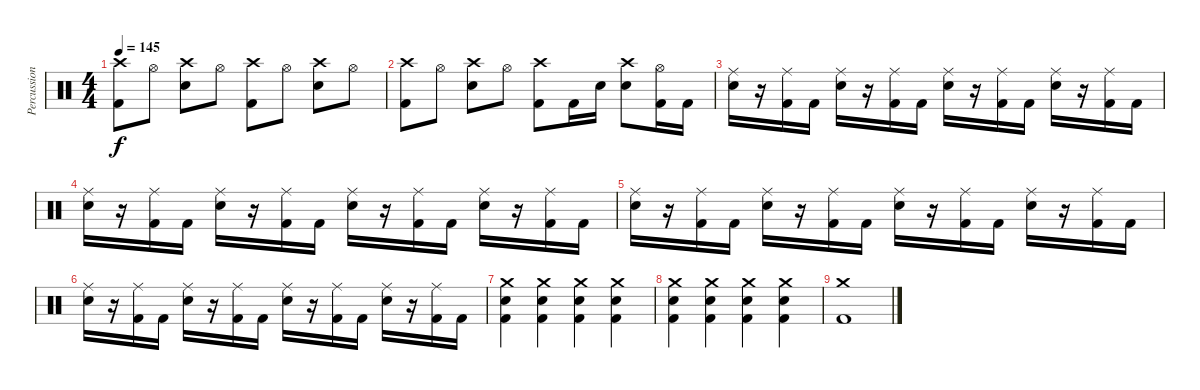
\track ("Percussion" "Percussion") {instrument percussion}
\staff {score}
\articulation defaults
\ts (4 4)
\tempo 145
\clef neutral
\ks c
("Crash high (hit)" "Kick (hit) 2").8{dy f} "Hi-Hat (open)".8 ("Crash high (hit)" "Electric Snare (hit)").8 "Hi-Hat (open)".8 ("Crash high (hit)" "Kick (hit) 2").8 "Hi-Hat (open)".8 ("Crash high (hit)" "Electric Snare (hit)").8 "Hi-Hat (open)".8 |
("Crash high (hit)" "Kick (hit) 2").8 "Hi-Hat (open)".8 ("Crash high (hit)" "Electric Snare (hit)").8 "Hi-Hat (open)".8 ("Crash high (hit)" "Kick (hit) 2").8 "Kick (hit) 2".16 "Electric Snare (hit)".16 ("Crash high (hit)" "Electric Snare (hit)").8 ("Hi-Hat (open)" "Kick (hit) 2").16 "Kick (hit) 2".16 |
("Ride (middle)" "Electric Snare (hit)").16 r.16 ("Ride (middle)" "Kick (hit) 2").16 "Kick (hit) 2".16 ("Ride (middle)" "Electric Snare (hit)").16 r.16 ("Ride (middle)" "Kick (hit) 2").16 "Kick (hit) 2".16 ("Ride (middle)" "Electric Snare (hit)").16 r.16 ("Ride (middle)" "Kick (hit) 2").16 "Kick (hit) 2".16 ("Ride (middle)" "Electric Snare (hit)").16 r.16 ("Ride (middle)" "Kick (hit) 2").16 "Kick (hit) 2".16 |
("Ride (middle)" "Electric Snare (hit)").16 r.16 ("Ride (middle)" "Kick (hit) 2").16 "Kick (hit) 2".16 ("Ride (middle)" "Electric Snare (hit)").16 r.16 ("Ride (middle)" "Kick (hit) 2").16 "Kick (hit) 2".16 ("Ride (middle)" "Electric Snare (hit)").16 r.16 ("Ride (middle)" "Kick (hit) 2").16 "Kick (hit) 2".16 ("Ride (middle)" "Electric Snare (hit)").16 r.16 ("Ride (middle)" "Kick (hit) 2").16 "Kick (hit) 2".16 |
("Ride (middle)" "Electric Snare (hit)").16 r.16 ("Ride (middle)" "Kick (hit) 2").16 "Kick (hit) 2".16 ("Ride (middle)" "Electric Snare (hit)").16 r.16 ("Ride (middle)" "Kick (hit) 2").16 "Kick (hit) 2".16 ("Ride (middle)" "Electric Snare (hit)").16 r.16 ("Ride (middle)" "Kick (hit) 2").16 "Kick (hit) 2".16 ("Ride (middle)" "Electric Snare (hit)").16 r.16 ("Ride (middle)" "Kick (hit) 2").16 "Kick (hit) 2".16 |
("Ride (middle)" "Electric Snare (hit)").16 r.16 ("Ride (middle)" "Kick (hit) 2").16 "Kick (hit) 2".16 ("Ride (middle)" "Electric Snare (hit)").16 r.16 ("Ride (middle)" "Kick (hit) 2").16 "Kick (hit) 2".16 ("Ride (middle)" "Electric Snare (hit)").16 r.16 ("Ride (middle)" "Kick (hit) 2").16 "Kick (hit) 2".16 ("Ride (middle)" "Electric Snare (hit)").16 r.16 ("Ride (middle)" "Kick (hit) 2").16 "Kick (hit) 2".16 |
("Crash medium (hit)" "Electric Snare (hit)" "Kick (hit) 2").4 ("Crash medium (hit)" "Electric Snare (hit)" "Kick (hit) 2").4 ("Crash medium (hit)" "Electric Snare (hit)" "Kick (hit) 2").4 ("Crash medium (hit)" "Electric Snare (hit)" "Kick (hit) 2").4 |
("Crash medium (hit)" "Electric Snare (hit)" "Kick (hit) 2").4 ("Crash medium (hit)" "Electric Snare (hit)" "Kick (hit) 2").4 ("Crash medium (hit)" "Electric Snare (hit)" "Kick (hit) 2").4 ("Crash medium (hit)" "Electric Snare (hit)" "Kick (hit) 2").4 |
("Crash medium (hit)" "Kick (hit) 2").1
